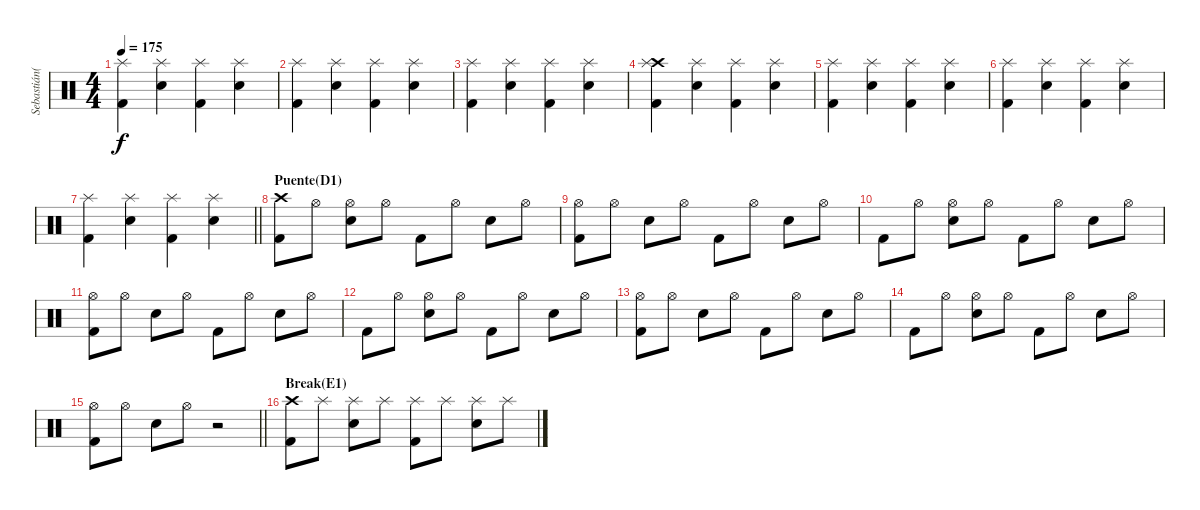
\track ("Sebastián(Bateria)" "Sebastián(") {instrument percussion}
\staff {score}
\articulation defaults
\ts (4 4)
\tempo 175
\clef neutral
\ks c
("Splash (hit)" "Kick (hit) 2").4{dy f} ("Snare (hit) 2" "Splash (hit)").4 ("Splash (hit)" "Kick (hit) 2").4 ("Snare (hit) 2" "Splash (hit)").4 |
("Splash (hit)" "Kick (hit) 2").4 ("Snare (hit) 2" "Splash (hit)").4 ("Splash (hit)" "Kick (hit) 2").4 ("Snare (hit) 2" "Splash (hit)").4 |
("Splash (hit)" "Kick (hit) 2").4 ("Snare (hit) 2" "Splash (hit)").4 ("Splash (hit)" "Kick (hit) 2").4 ("Snare (hit) 2" "Splash (hit)").4 |
("Crash high (hit)" "Splash (hit)" "Kick (hit) 2").4 ("Snare (hit) 2" "Splash (hit)").4 ("Splash (hit)" "Kick (hit) 2").4 ("Snare (hit) 2" "Splash (hit)").4 |
("Splash (hit)" "Kick (hit) 2").4 ("Snare (hit) 2" "Splash (hit)").4 ("Splash (hit)" "Kick (hit) 2").4 ("Snare (hit) 2" "Splash (hit)").4 |
("Splash (hit)" "Kick (hit) 2").4 ("Snare (hit) 2" "Splash (hit)").4 ("Splash (hit)" "Kick (hit) 2").4 ("Snare (hit) 2" "Splash (hit)").4 |
\barLineRight lightlight
("Splash (hit)" "Kick (hit) 2").4 ("Snare (hit) 2" "Splash (hit)").4 ("Splash (hit)" "Kick (hit) 2").4 ("Snare (hit) 2" "Splash (hit)").4 |
\section ("" "Puente(D1)")
("Crash high (hit)" "Kick (hit) 2").8 "Hi-Hat (open)".8 ("Hi-Hat (open)" "Snare (hit) 2").8 "Hi-Hat (open)".8 "Kick (hit) 2".8 "Hi-Hat (open)".8 "Snare (hit) 2".8 "Hi-Hat (open)".8 |
("Hi-Hat (open)" "Kick (hit) 2").8 "Hi-Hat (open)".8 "Snare (hit) 2".8 "Hi-Hat (open)".8 "Kick (hit) 2".8 "Hi-Hat (open)".8 "Snare (hit) 2".8 "Hi-Hat (open)".8 |
"Kick (hit) 2".8 "Hi-Hat (open)".8 ("Hi-Hat (open)" "Snare (hit) 2").8 "Hi-Hat (open)".8 "Kick (hit) 2".8 "Hi-Hat (open)".8 "Snare (hit) 2".8 "Hi-Hat (open)".8 |
("Hi-Hat (open)" "Kick (hit) 2").8 "Hi-Hat (open)".8 "Snare (hit) 2".8 "Hi-Hat (open)".8 "Kick (hit) 2".8 "Hi-Hat (open)".8 "Snare (hit) 2".8 "Hi-Hat (open)".8 |
"Kick (hit) 2".8 "Hi-Hat (open)".8 ("Hi-Hat (open)" "Snare (hit) 2").8 "Hi-Hat (open)".8 "Kick (hit) 2".8 "Hi-Hat (open)".8 "Snare (hit) 2".8 "Hi-Hat (open)".8 |
("Hi-Hat (open)" "Kick (hit) 2").8 "Hi-Hat (open)".8 "Snare (hit) 2".8 "Hi-Hat (open)".8 "Kick (hit) 2".8 "Hi-Hat (open)".8 "Snare (hit) 2".8 "Hi-Hat (open)".8 |
"Kick (hit) 2".8 "Hi-Hat (open)".8 ("Hi-Hat (open)" "Snare (hit) 2").8 "Hi-Hat (open)".8 "Kick (hit) 2".8 "Hi-Hat (open)".8 "Snare (hit) 2".8 "Hi-Hat (open)".8 |
\barLineRight lightlight
("Hi-Hat (open)" "Kick (hit) 2").8 "Hi-Hat (open)".8 "Snare (hit) 2".8 "Hi-Hat (open)".8 r.2 |
\section ("" "Break(E1)")
("Crash high (hit)" "Kick (hit) 2").8 "Splash (hit)".8 ("Splash (hit)" "Snare (hit) 2").8 "Splash (hit)".8 ("Splash (hit)" "Kick (hit) 2").8 "Splash (hit)".8 ("Splash (hit)" "Snare (hit) 2").8 "Splash (hit)".8
